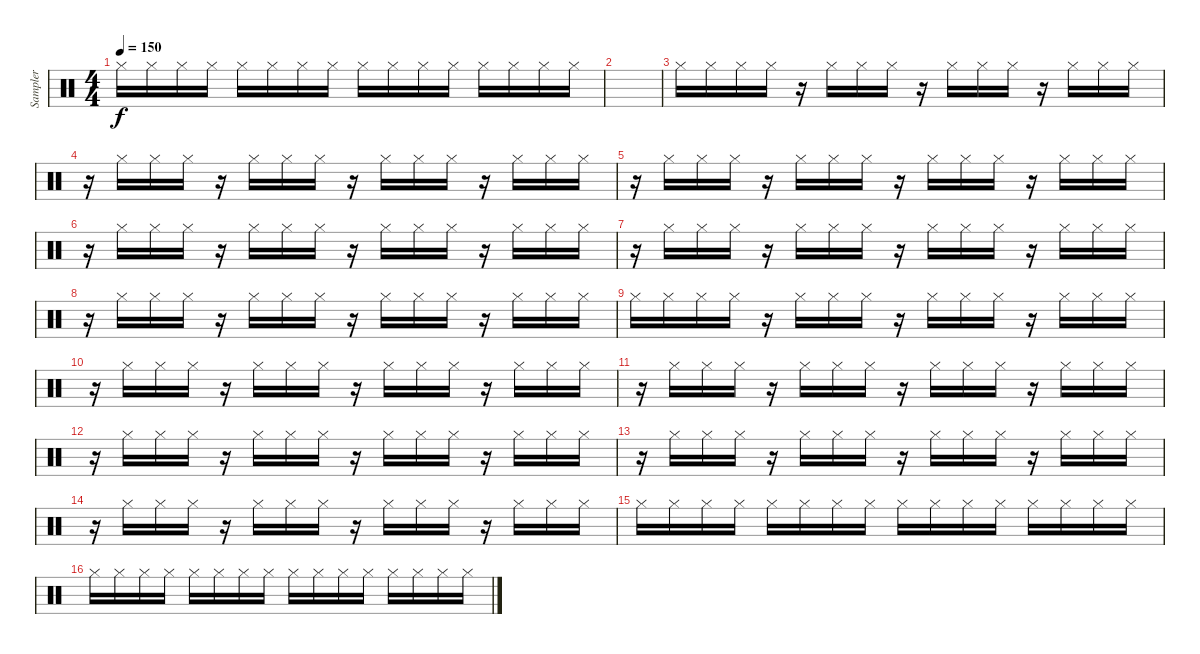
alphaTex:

\track ("Sampler" "Sampler") {instrument percussion}
\staff {score}
\articulation defaults
\ts (4 4)
\tempo 150
\clef neutral
\ks c "Hi-Hat (closed)".16{dy f} "Hi-Hat (closed)".16 "Hi-Hat (closed)".16 "Hi-Hat (closed)".16 "Hi-Hat (closed)".16 "Hi-Hat (closed)".16 "Hi-Hat (closed)".16 "Hi-Hat (closed)".16 "Hi-Hat (closed)".16 "Hi-Hat (closed)".16 "Hi-Hat (closed)".16 "Hi-Hat (closed)".16 "Hi-Hat (closed)".16 "Hi-Hat (closed)".16 "Hi-Hat (closed)".16 "Hi-Hat (closed)".16
|
|
"Hi-Hat (closed)".16 "Hi-Hat (closed)".16 "Hi-Hat (closed)".16 "Hi-Hat (closed)".16 r.16 "Hi-Hat (closed)".16 "Hi-Hat (closed)".16 "Hi-Hat (closed)".16 r.16 "Hi-Hat (closed)".16 "Hi-Hat (closed)".16 "Hi-Hat (closed)".16 r.16 "Hi-Hat (closed)".16 "Hi-Hat (closed)".16 "Hi-Hat (closed)".16 |
r.16 "Hi-Hat (closed)".16 "Hi-Hat (closed)".16 "Hi-Hat (closed)".16 r.16 "Hi-Hat (closed)".16 "Hi-Hat (closed)".16 "Hi-Hat (closed)".16 r.16 "Hi-Hat (closed)".16 "Hi-Hat (closed)".16 "Hi-Hat (closed)".16 r.16 "Hi-Hat (closed)".16 "Hi-Hat (closed)".16 "Hi-Hat (closed)".16 |
r.16 "Hi-Hat (closed)".16 "Hi-Hat (closed)".16 "Hi-Hat (closed)".16 r.16 "Hi-Hat (closed)".16 "Hi-Hat (closed)".16 "Hi-Hat (closed)".16 r.16 "Hi-Hat (closed)".16 "Hi-Hat (closed)".16 "Hi-Hat (closed)".16 r.16 "Hi-Hat (closed)".16 "Hi-Hat (closed)".16 "Hi-Hat (closed)".16 |
r.16 "Hi-Hat (closed)".16 "Hi-Hat (closed)".16 "Hi-Hat (closed)".16 r.16 "Hi-Hat (closed)".16 "Hi-Hat (closed)".16 "Hi-Hat (closed)".16 r.16 "Hi-Hat (closed)".16 "Hi-Hat (closed)".16 "Hi-Hat (closed)".16 r.16 "Hi-Hat (closed)".16 "Hi-Hat (closed)".16 "Hi-Hat (closed)".16 |
r.16 "Hi-Hat (closed)".16 "Hi-Hat (closed)".16 "Hi-Hat (closed)".16 r.16 "Hi-Hat (closed)".16 "Hi-Hat (closed)".16 "Hi-Hat (closed)".16 r.16 "Hi-Hat (closed)".16 "Hi-Hat (closed)".16 "Hi-Hat (closed)".16 r.16 "Hi-Hat (closed)".16 "Hi-Hat (closed)".16 "Hi-Hat (closed)".16 |
r.16 "Hi-Hat (closed)".16 "Hi-Hat (closed)".16 "Hi-Hat (closed)".16 r.16 "Hi-Hat (closed)".16 "Hi-Hat (closed)".16 "Hi-Hat (closed)".16 r.16 "Hi-Hat (closed)".16 "Hi-Hat (closed)".16 "Hi-Hat (closed)".16 r.16 "Hi-Hat (closed)".16 "Hi-Hat (closed)".16 "Hi-Hat (closed)".16 |
"Hi-Hat (closed)".16 "Hi-Hat (closed)".16 "Hi-Hat (closed)".16 "Hi-Hat (closed)".16 r.16 "Hi-Hat (closed)".16 "Hi-Hat (closed)".16 "Hi-Hat (closed)".16 r.16 "Hi-Hat (closed)".16 "Hi-Hat (closed)".16 "Hi-Hat (closed)".16 r.16 "Hi-Hat (closed)".16 "Hi-Hat (closed)".16 "Hi-Hat (closed)".16 |
r.16 "Hi-Hat (closed)".16 "Hi-Hat (closed)".16 "Hi-Hat (closed)".16 r.16 "Hi-Hat (closed)".16 "Hi-Hat (closed)".16 "Hi-Hat (closed)".16 r.16 "Hi-Hat (closed)".16 "Hi-Hat (closed)".16 "Hi-Hat (closed)".16 r.16 "Hi-Hat (closed)".16 "Hi-Hat (closed)".16 "Hi-Hat (closed)".16 |
r.16 "Hi-Hat (closed)".16 "Hi-Hat (closed)".16 "Hi-Hat (closed)".16 r.16 "Hi-Hat (closed)".16 "Hi-Hat (closed)".16 "Hi-Hat (closed)".16 r.16 "Hi-Hat (closed)".16 "Hi-Hat (closed)".16 "Hi-Hat (closed)".16 r.16 "Hi-Hat (closed)".16 "Hi-Hat (closed)".16 "Hi-Hat (closed)".16 |
r.16 "Hi-Hat (closed)".16 "Hi-Hat (closed)".16 "Hi-Hat (closed)".16 r.16 "Hi-Hat (closed)".16 "Hi-Hat (closed)".16 "Hi-Hat (closed)".16 r.16 "Hi-Hat (closed)".16 "Hi-Hat (closed)".16 "Hi-Hat (closed)".16 r.16 "Hi-Hat (closed)".16 "Hi-Hat (closed)".16 "Hi-Hat (closed)".16 |
r.16 "Hi-Hat (closed)".16 "Hi-Hat (closed)".16 "Hi-Hat (closed)".16 r.16 "Hi-Hat (closed)".16 "Hi-Hat (closed)".16 "Hi-Hat (closed)".16 r.16 "Hi-Hat (closed)".16 "Hi-Hat (closed)".16 "Hi-Hat (closed)".16 r.16 "Hi-Hat (closed)".16 "Hi-Hat (closed)".16 "Hi-Hat (closed)".16 |
r.16 "Hi-Hat (closed)".16 "Hi-Hat (closed)".16 "Hi-Hat (closed)".16 r.16 "Hi-Hat (closed)".16 "Hi-Hat (closed)".16 "Hi-Hat (closed)".16 r.16 "Hi-Hat (closed)".16 "Hi-Hat (closed)".16 "Hi-Hat (closed)".16 r.16 "Hi-Hat (closed)".16 "Hi-Hat (closed)".16 "Hi-Hat (closed)".16 |
"Hi-Hat (closed)".16 "Hi-Hat (closed)".16 "Hi-Hat (closed)".16 "Hi-Hat (closed)".16 "Hi-Hat (closed)".16 "Hi-Hat (closed)".16 "Hi-Hat (closed)".16 "Hi-Hat (closed)".16 "Hi-Hat (closed)".16 "Hi-Hat (closed)".16 "Hi-Hat (closed)".16 "Hi-Hat (closed)".16 "Hi-Hat (closed)".16 "Hi-Hat (closed)".16 "Hi-Hat (closed)".16 "Hi-Hat (closed)".16 |
"Hi-Hat (closed)".16 "Hi-Hat (closed)".16 "Hi-Hat (closed)".16 "Hi-Hat (closed)".16 "Hi-Hat (closed)".16 "Hi-Hat (closed)".16 "Hi-Hat (closed)".16 "Hi-Hat (closed)".16 "Hi-Hat (closed)".16 "Hi-Hat (closed)".16 "Hi-Hat (closed)".16 "Hi-Hat (closed)".16 "Hi-Hat (closed)".16 "Hi-Hat (closed)".16 "Hi-Hat (closed)".16 "Hi-Hat (closed)".16
